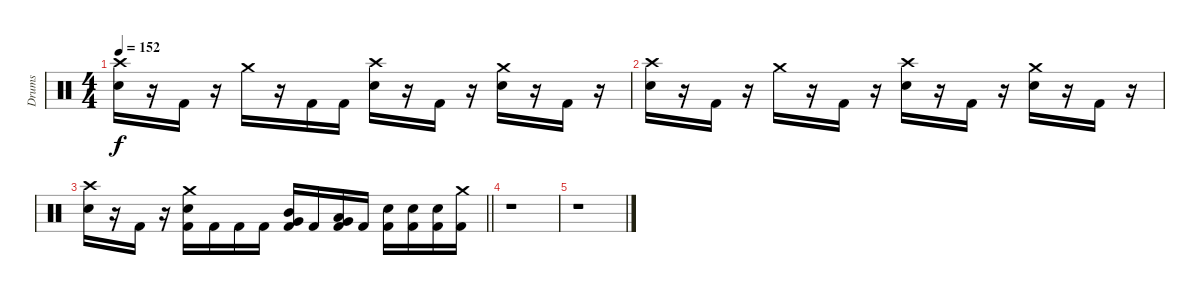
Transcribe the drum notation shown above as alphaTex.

\track ("Drums" "Drums") {instrument percussion}
\staff {score}
\articulation defaults
\ts (4 4)
\tempo 152
\clef neutral
\ks c
("Snare (hit) 2" "Crash high (hit)").16{dy f} r.16 "Kick (hit) 2".16 r.16 "Crash medium (hit)".16 r.16 "Kick (hit) 2".16 "Kick (hit) 2".16 ("Snare (hit) 2" "Crash high (hit)").16 r.16 "Kick (hit) 2".16 r.16 ("Snare (hit) 2" "Crash medium (hit)").16 r.16 "Kick (hit) 2".16 r.16 |
("Snare (hit) 2" "Crash high (hit)").16 r.16 "Kick (hit) 2".16 r.16 "Crash medium (hit)".16 r.16 "Kick (hit) 2".16 r.16 ("Snare (hit) 2" "Crash high (hit)").16 r.16 "Kick (hit) 2".16 r.16 ("Snare (hit) 2" "Crash medium (hit)").16 r.16 "Kick (hit) 2".16 r.16 |
\barLineRight lightlight
("Snare (hit) 2" "Crash high (hit)").16 r.16 "Kick (hit) 2".16 r.16 ("Kick (hit) 2" "Snare (hit) 2" "Crash medium (hit)").16 "Kick (hit) 2".16 "Kick (hit) 2".16 "Kick (hit) 2".16 ("Kick (hit) 2" "Mid Tom (hit)" "Very Low Tom (hit)").16 "Kick (hit) 2".16 ("Kick (hit) 2" "Low Tom (hit)" "Very Low Tom (hit)").16 "Kick (hit) 2".16 ("Kick (hit) 2" "Snare (hit) 2").16 ("Kick (hit) 2" "Snare (hit) 2").16 ("Kick (hit) 2" "Snare (hit) 2").16 ("Kick (hit) 2" "Crash medium (hit)").16 |
\section ("" " ")
r.1 |
r.1
